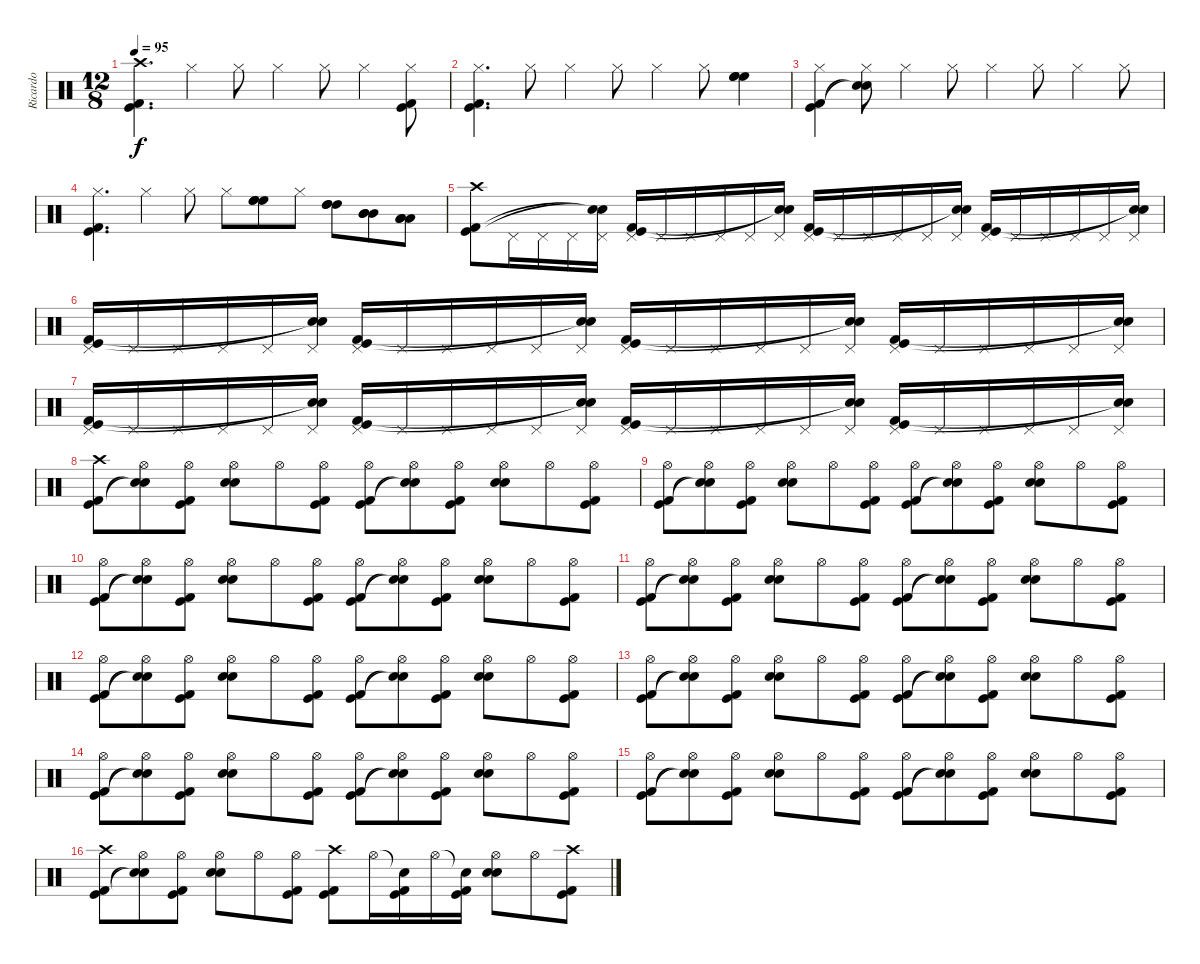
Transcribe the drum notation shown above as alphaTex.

\track ("Ricardo" "Ricardo") {instrument percussion}
\staff {score}
\articulation defaults
\ts (12 8)
\tempo 95
\clef neutral
\ks c
("Crash high (hit)" "Kick (hit)" "Kick (hit) 2").4{d dy f} "Hi-Hat (closed)".4 "Hi-Hat (closed)".8 "Hi-Hat (closed)".4 "Hi-Hat (closed)".8 "Hi-Hat (closed)".4 ("Hi-Hat (closed)" "Kick (hit) 2" "Kick (hit)").8 |
("Hi-Hat (closed)" "Kick (hit)" "Kick (hit) 2").4{d} "Hi-Hat (closed)".8 "Hi-Hat (closed)".4 "Hi-Hat (closed)".8 "Hi-Hat (closed)".4 "Hi-Hat (closed)".8 ("High Floor Tom (hit)" "High Floor Tom (hit)" "High Floor Tom (hit)").4 |
("Hi-Hat (closed)" "Kick (hit)" "Kick (hit) 2").4 ("Hi-Hat (closed)" "Snare (hit)"{t} "Snare (hit)"{t}).8 "Hi-Hat (closed)".4 "Hi-Hat (closed)".8 "Hi-Hat (closed)".4 "Hi-Hat (closed)".8 "Hi-Hat (closed)".4 "Hi-Hat (closed)".8 |
("Hi-Hat (closed)" "Kick (hit)" "Kick (hit) 2").4{d} "Hi-Hat (closed)".4 "Hi-Hat (closed)".8 "Hi-Hat (closed)".8 ("High Floor Tom (hit)" "High Floor Tom (hit)" "High Floor Tom (hit)").8 "Hi-Hat (closed)".8 ("High Tom (hit)" "High Tom (hit)" "High Tom (hit)").8 ("Mid Tom (hit)" "Mid Tom (hit)" "Mid Tom (hit)").8 ("Low Tom (hit)" "Low Tom (hit)" "Low Tom (hit)").8 |
("Crash high (hit)" "Kick (hit) 2" "Kick (hit)").8 "Pedal Hi-Hat (hit)".16 "Pedal Hi-Hat (hit)".16 "Pedal Hi-Hat (hit)".16 ("Pedal Hi-Hat (hit)" "Snare (hit)"{t} "Snare (hit)"{t}).16 ("Pedal Hi-Hat (hit)" "Kick (hit) 2" "Kick (hit)").16 "Pedal Hi-Hat (hit)".16 "Pedal Hi-Hat (hit)".16 "Pedal Hi-Hat (hit)".16 "Pedal Hi-Hat (hit)".16 ("Pedal Hi-Hat (hit)" "Snare (hit)"{t} "Snare (hit)"{t}).16 ("Pedal Hi-Hat (hit)" "Kick (hit) 2" "Kick (hit)").16 "Pedal Hi-Hat (hit)".16 "Pedal Hi-Hat (hit)".16 "Pedal Hi-Hat (hit)".16 "Pedal Hi-Hat (hit)".16 ("Pedal Hi-Hat (hit)" "Snare (hit)"{t} "Snare (hit)"{t}).16 ("Pedal Hi-Hat (hit)" "Kick (hit) 2" "Kick (hit)").16 "Pedal Hi-Hat (hit)".16 "Pedal Hi-Hat (hit)".16 "Pedal Hi-Hat (hit)".16 "Pedal Hi-Hat (hit)".16 ("Pedal Hi-Hat (hit)" "Snare (hit)"{t} "Snare (hit)"{t}).16 |
("Pedal Hi-Hat (hit)" "Kick (hit)" "Kick (hit) 2").16 "Pedal Hi-Hat (hit)".16 "Pedal Hi-Hat (hit)".16 "Pedal Hi-Hat (hit)".16 "Pedal Hi-Hat (hit)".16 ("Pedal Hi-Hat (hit)" "Snare (hit)"{t} "Snare (hit)"{t}).16 ("Pedal Hi-Hat (hit)" "Kick (hit)" "Kick (hit) 2").16 "Pedal Hi-Hat (hit)".16 "Pedal Hi-Hat (hit)".16 "Pedal Hi-Hat (hit)".16 "Pedal Hi-Hat (hit)".16 ("Pedal Hi-Hat (hit)" "Snare (hit)"{t} "Snare (hit)"{t}).16 ("Pedal Hi-Hat (hit)" "Kick (hit)" "Kick (hit) 2").16 "Pedal Hi-Hat (hit)".16 "Pedal Hi-Hat (hit)".16 "Pedal Hi-Hat (hit)".16 "Pedal Hi-Hat (hit)".16 ("Pedal Hi-Hat (hit)" "Snare (hit)"{t} "Snare (hit)"{t}).16 ("Pedal Hi-Hat (hit)" "Kick (hit) 2" "Kick (hit)").16 "Pedal Hi-Hat (hit)".16 "Pedal Hi-Hat (hit)".16 "Pedal Hi-Hat (hit)".16 "Pedal Hi-Hat (hit)".16 ("Pedal Hi-Hat (hit)" "Snare (hit)"{t} "Snare (hit)"{t}).16 |
("Pedal Hi-Hat (hit)" "Kick (hit)" "Kick (hit) 2").16 "Pedal Hi-Hat (hit)".16 "Pedal Hi-Hat (hit)".16 "Pedal Hi-Hat (hit)".16 "Pedal Hi-Hat (hit)".16 ("Pedal Hi-Hat (hit)" "Snare (hit)"{t} "Snare (hit)"{t}).16 ("Pedal Hi-Hat (hit)" "Kick (hit)" "Kick (hit) 2").16 "Pedal Hi-Hat (hit)".16 "Pedal Hi-Hat (hit)".16 "Pedal Hi-Hat (hit)".16 "Pedal Hi-Hat (hit)".16 ("Pedal Hi-Hat (hit)" "Snare (hit)"{t} "Snare (hit)"{t}).16 ("Pedal Hi-Hat (hit)" "Kick (hit)" "Kick (hit) 2").16 "Pedal Hi-Hat (hit)".16 "Pedal Hi-Hat (hit)".16 "Pedal Hi-Hat (hit)".16 "Pedal Hi-Hat (hit)".16 ("Pedal Hi-Hat (hit)" "Snare (hit)"{t} "Snare (hit)"{t}).16 ("Pedal Hi-Hat (hit)" "Kick (hit) 2" "Kick (hit)").16 "Pedal Hi-Hat (hit)".16 "Pedal Hi-Hat (hit)".16 "Pedal Hi-Hat (hit)".16 "Pedal Hi-Hat (hit)".16 ("Pedal Hi-Hat (hit)" "Snare (hit)"{t} "Snare (hit)"{t}).16 |
("Crash high (hit)" "Kick (hit)" "Kick (hit) 2").8 ("Hi-Hat (open)" "Snare (hit)"{t} "Snare (hit)"{t}).8 ("Hi-Hat (open)" "Kick (hit)" "Kick (hit) 2").8 ("Hi-Hat (open)" "Electric Snare (hit)" "Snare (hit) 2").8 "Hi-Hat (open)".8 ("Hi-Hat (open)" "Kick (hit)" "Kick (hit) 2").8 ("Hi-Hat (open)" "Kick (hit)" "Kick (hit) 2").8 ("Hi-Hat (open)" "Snare (hit)"{t} "Snare (hit)"{t}).8 ("Hi-Hat (open)" "Kick (hit)" "Kick (hit) 2").8 ("Hi-Hat (open)" "Electric Snare (hit)" "Snare (hit) 2").8 "Hi-Hat (open)".8 ("Hi-Hat (open)" "Kick (hit)" "Kick (hit) 2").8 |
("Hi-Hat (open)" "Kick (hit)" "Kick (hit) 2").8 ("Hi-Hat (open)" "Snare (hit)"{t} "Snare (hit)"{t}).8 ("Hi-Hat (open)" "Kick (hit)" "Kick (hit) 2").8 ("Hi-Hat (open)" "Electric Snare (hit)" "Snare (hit) 2").8 "Hi-Hat (open)".8 ("Hi-Hat (open)" "Kick (hit)" "Kick (hit) 2").8 ("Hi-Hat (open)" "Kick (hit) 2" "Kick (hit)").8 ("Hi-Hat (open)" "Snare (hit)"{t} "Snare (hit)"{t}).8 ("Hi-Hat (open)" "Kick (hit)" "Kick (hit) 2").8 ("Hi-Hat (open)" "Electric Snare (hit)" "Snare (hit) 2").8 "Hi-Hat (open)".8 ("Hi-Hat (open)" "Kick (hit)" "Kick (hit) 2").8 |
("Hi-Hat (open)" "Kick (hit)" "Kick (hit) 2").8 ("Hi-Hat (open)" "Snare (hit)"{t} "Snare (hit)"{t}).8 ("Hi-Hat (open)" "Kick (hit)" "Kick (hit) 2").8 ("Hi-Hat (open)" "Electric Snare (hit)" "Snare (hit) 2").8 "Hi-Hat (open)".8 ("Hi-Hat (open)" "Kick (hit)" "Kick (hit) 2").8 ("Hi-Hat (open)" "Kick (hit) 2" "Kick (hit)").8 ("Hi-Hat (open)" "Snare (hit)"{t} "Snare (hit)"{t}).8 ("Hi-Hat (open)" "Kick (hit)" "Kick (hit) 2").8 ("Hi-Hat (open)" "Electric Snare (hit)" "Snare (hit) 2").8 "Hi-Hat (open)".8 ("Hi-Hat (open)" "Kick (hit)" "Kick (hit) 2").8 |
("Hi-Hat (open)" "Kick (hit)" "Kick (hit) 2").8 ("Hi-Hat (open)" "Snare (hit)"{t} "Snare (hit)"{t}).8 ("Hi-Hat (open)" "Kick (hit)" "Kick (hit) 2").8 ("Hi-Hat (open)" "Electric Snare (hit)" "Snare (hit) 2").8 "Hi-Hat (open)".8 ("Hi-Hat (open)" "Kick (hit)" "Kick (hit) 2").8 ("Hi-Hat (open)" "Kick (hit) 2" "Kick (hit)").8 ("Hi-Hat (open)" "Snare (hit)"{t} "Snare (hit)"{t}).8 ("Hi-Hat (open)" "Kick (hit)" "Kick (hit) 2").8 ("Hi-Hat (open)" "Electric Snare (hit)" "Snare (hit) 2").8 "Hi-Hat (open)".8 ("Hi-Hat (open)" "Kick (hit)" "Kick (hit) 2").8 |
("Hi-Hat (open)" "Kick (hit)" "Kick (hit) 2").8 ("Hi-Hat (open)" "Snare (hit)"{t} "Snare (hit)"{t}).8 ("Hi-Hat (open)" "Kick (hit)" "Kick (hit) 2").8 ("Hi-Hat (open)" "Electric Snare (hit)" "Snare (hit) 2").8 "Hi-Hat (open)".8 ("Hi-Hat (open)" "Kick (hit)" "Kick (hit) 2").8 ("Hi-Hat (open)" "Kick (hit) 2" "Kick (hit)").8 ("Hi-Hat (open)" "Snare (hit)"{t} "Snare (hit)"{t}).8 ("Hi-Hat (open)" "Kick (hit)" "Kick (hit) 2").8 ("Hi-Hat (open)" "Electric Snare (hit)" "Snare (hit) 2").8 "Hi-Hat (open)".8 ("Hi-Hat (open)" "Kick (hit)" "Kick (hit) 2").8 |
("Hi-Hat (open)" "Kick (hit)" "Kick (hit) 2").8 ("Hi-Hat (open)" "Snare (hit)"{t} "Snare (hit)"{t}).8 ("Hi-Hat (open)" "Kick (hit)" "Kick (hit) 2").8 ("Hi-Hat (open)" "Electric Snare (hit)" "Snare (hit) 2").8 "Hi-Hat (open)".8 ("Hi-Hat (open)" "Kick (hit)" "Kick (hit) 2").8 ("Hi-Hat (open)" "Kick (hit) 2" "Kick (hit)").8 ("Hi-Hat (open)" "Snare (hit)"{t} "Snare (hit)"{t}).8 ("Hi-Hat (open)" "Kick (hit)" "Kick (hit) 2").8 ("Hi-Hat (open)" "Electric Snare (hit)" "Snare (hit) 2").8 "Hi-Hat (open)".8 ("Hi-Hat (open)" "Kick (hit)" "Kick (hit) 2").8 |
("Hi-Hat (open)" "Kick (hit)" "Kick (hit) 2").8 ("Hi-Hat (open)" "Snare (hit)"{t} "Snare (hit)"{t}).8 ("Hi-Hat (open)" "Kick (hit)" "Kick (hit) 2").8 ("Hi-Hat (open)" "Electric Snare (hit)" "Snare (hit) 2").8 "Hi-Hat (open)".8 ("Hi-Hat (open)" "Kick (hit)" "Kick (hit) 2").8 ("Hi-Hat (open)" "Kick (hit) 2" "Kick (hit)").8 ("Hi-Hat (open)" "Snare (hit)"{t} "Snare (hit)"{t}).8 ("Hi-Hat (open)" "Kick (hit)" "Kick (hit) 2").8 ("Hi-Hat (open)" "Electric Snare (hit)" "Snare (hit) 2").8 "Hi-Hat (open)".8 ("Hi-Hat (open)" "Kick (hit)" "Kick (hit) 2").8 |
("Hi-Hat (open)" "Kick (hit)" "Kick (hit) 2").8 ("Hi-Hat (open)" "Snare (hit)"{t} "Snare (hit)"{t}).8 ("Hi-Hat (open)" "Kick (hit)" "Kick (hit) 2").8 ("Hi-Hat (open)" "Electric Snare (hit)" "Snare (hit) 2").8 "Hi-Hat (open)".8 ("Hi-Hat (open)" "Kick (hit)" "Kick (hit) 2").8 ("Hi-Hat (open)" "Kick (hit) 2" "Kick (hit)").8 ("Hi-Hat (open)" "Snare (hit)"{t} "Snare (hit)"{t}).8 ("Hi-Hat (open)" "Kick (hit)" "Kick (hit) 2").8 ("Hi-Hat (open)" "Electric Snare (hit)" "Snare (hit) 2").8 "Hi-Hat (open)".8 ("Hi-Hat (open)" "Kick (hit)" "Kick (hit) 2").8 |
("Crash high (hit)" "Kick (hit)" "Kick (hit) 2").8 ("Hi-Hat (open)" "Snare (hit)"{t} "Snare (hit)"{t}).8 ("Hi-Hat (open)" "Kick (hit)" "Kick (hit) 2").8 ("Hi-Hat (open)" "Electric Snare (hit)" "Snare (hit) 2").8 "Hi-Hat (open)".8 ("Hi-Hat (open)" "Kick (hit)" "Kick (hit) 2").8 ("Crash high (hit)" "Kick (hit)" "Kick (hit) 2").8 "Hi-Hat (open)".16 ("Snare (hit)"{t} "Kick (hit)" "Kick (hit) 2").16 "Hi-Hat (open)".16 ("Snare (hit)"{t} "Kick (hit)" "Kick (hit) 2").16 ("Hi-Hat (open)" "Electric Snare (hit)" "Snare (hit) 2").8 "Hi-Hat (open)".8 ("Crash high (hit)" "Kick (hit) 2" "Kick (hit)").8
